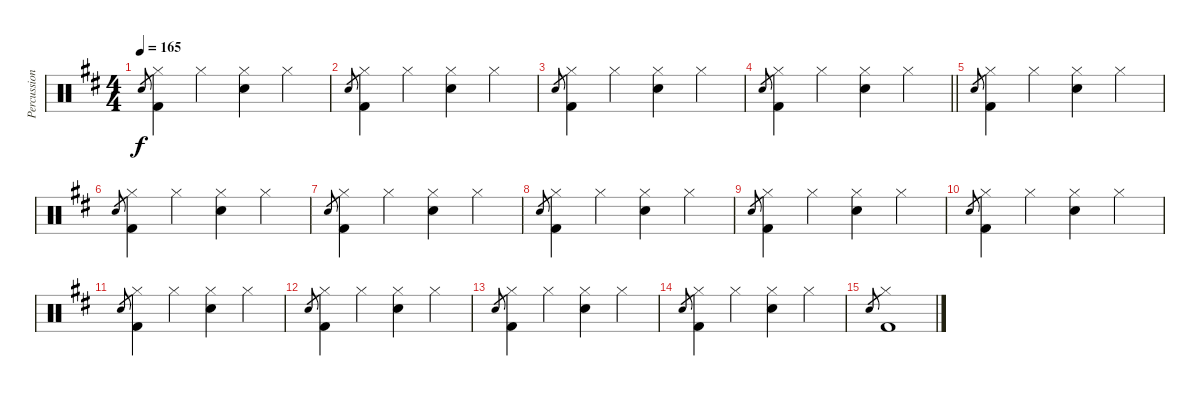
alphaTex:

\track ("Percussion [Nick Mason]" "Percussion") {instrument percussion}
\staff {score}
\articulation defaults
\ts (4 4)
\tempo 165
\clef neutral
\ks d "Snare (hit) 2".8{gr dy f}
("Hi-Hat (closed)" "Kick (hit) 2").4 "Hi-Hat (closed)".4 ("Hi-Hat (closed)" "Snare (hit) 2").4 "Hi-Hat (closed)".4 |
"Snare (hit) 2".8{gr} ("Hi-Hat (closed)" "Kick (hit) 2").4 "Hi-Hat (closed)".4 ("Hi-Hat (closed)" "Snare (hit) 2").4 "Hi-Hat (closed)".4 |
"Snare (hit) 2".8{gr} ("Hi-Hat (closed)" "Kick (hit) 2").4 "Hi-Hat (closed)".4 ("Hi-Hat (closed)" "Snare (hit) 2").4 "Hi-Hat (closed)".4 |
\barLineRight lightlight "Snare (hit) 2".8{gr}
("Hi-Hat (closed)" "Kick (hit) 2").4 "Hi-Hat (closed)".4 ("Hi-Hat (closed)" "Snare (hit) 2").4 "Hi-Hat (closed)".4 |
"Snare (hit) 2".8{gr} ("Hi-Hat (closed)" "Kick (hit) 2").4 "Hi-Hat (closed)".4 ("Hi-Hat (closed)" "Snare (hit) 2").4 "Hi-Hat (closed)".4 |
"Snare (hit) 2".8{gr} ("Hi-Hat (closed)" "Kick (hit) 2").4 "Hi-Hat (closed)".4 ("Hi-Hat (closed)" "Snare (hit) 2").4 "Hi-Hat (closed)".4 |
"Snare (hit) 2".8{gr} ("Hi-Hat (closed)" "Kick (hit) 2").4 "Hi-Hat (closed)".4 ("Hi-Hat (closed)" "Snare (hit) 2").4 "Hi-Hat (closed)".4 |
"Snare (hit) 2".8{gr} ("Hi-Hat (closed)" "Kick (hit) 2").4 "Hi-Hat (closed)".4 ("Hi-Hat (closed)" "Snare (hit) 2").4 "Hi-Hat (closed)".4 |
"Snare (hit) 2".8{gr} ("Hi-Hat (closed)" "Kick (hit) 2").4 "Hi-Hat (closed)".4 ("Hi-Hat (closed)" "Snare (hit) 2").4 "Hi-Hat (closed)".4 |
"Snare (hit) 2".8{gr} ("Hi-Hat (closed)" "Kick (hit) 2").4 "Hi-Hat (closed)".4 ("Hi-Hat (closed)" "Snare (hit) 2").4 "Hi-Hat (closed)".4 |
"Snare (hit) 2".8{gr} ("Hi-Hat (closed)" "Kick (hit) 2").4 "Hi-Hat (closed)".4 ("Hi-Hat (closed)" "Snare (hit) 2").4 "Hi-Hat (closed)".4 |
"Snare (hit) 2".8{gr} ("Hi-Hat (closed)" "Kick (hit) 2").4 "Hi-Hat (closed)".4 ("Hi-Hat (closed)" "Snare (hit) 2").4 "Hi-Hat (closed)".4 |
"Snare (hit) 2".8{gr} ("Hi-Hat (closed)" "Kick (hit) 2").4 "Hi-Hat (closed)".4 ("Hi-Hat (closed)" "Snare (hit) 2").4 "Hi-Hat (closed)".4 |
"Snare (hit) 2".8{gr} ("Hi-Hat (closed)" "Kick (hit) 2").4 "Hi-Hat (closed)".4 ("Hi-Hat (closed)" "Snare (hit) 2").4 "Hi-Hat (closed)".4 |
"Snare (hit) 2".8{gr} ("Hi-Hat (closed)" "Kick (hit) 2").1
